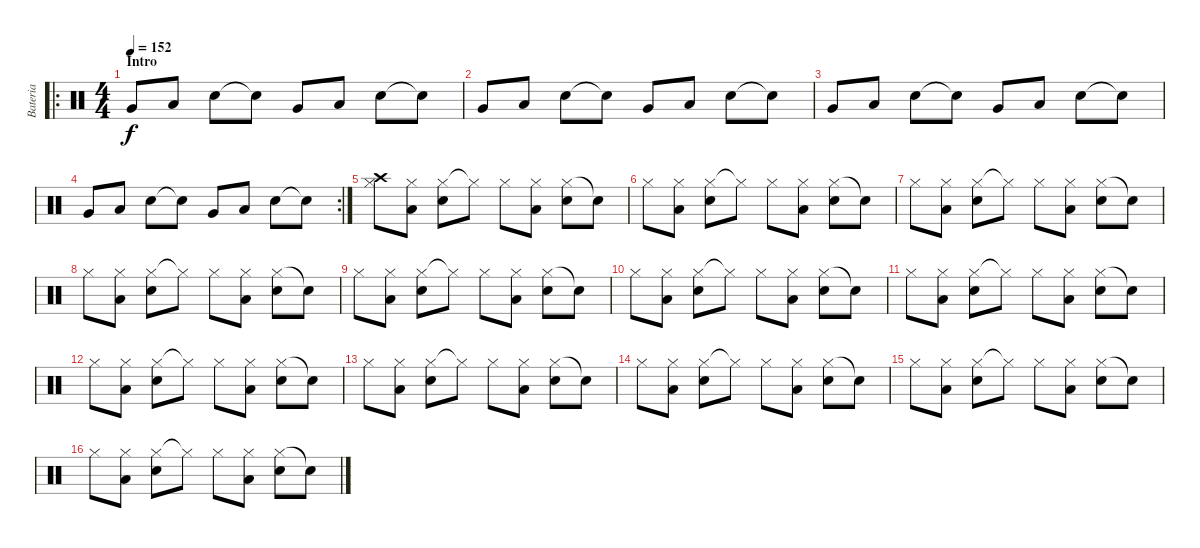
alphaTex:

\track ("Bateria" "Bateria") {instrument percussion}
\staff {score}
\articulation defaults
\ro
\ts (4 4)
\section ("" "Intro")
\tempo 152
\clef neutral
\ks c "Very Low Tom (hit)".8{dy f} "Low Floor Tom (hit)".8 "Snare (hit) 2".8 "Snare (hit)"{t}.8 "Very Low Tom (hit)".8 "Low Floor Tom (hit)".8 "Snare (hit) 2".8 "Snare (hit)"{t}.8
|
"Very Low Tom (hit)".8 "Low Floor Tom (hit)".8 "Snare (hit) 2".8 "Snare (hit)"{t}.8 "Very Low Tom (hit)".8 "Low Floor Tom (hit)".8 "Snare (hit) 2".8 "Snare (hit)"{t}.8 |
"Very Low Tom (hit)".8 "Low Floor Tom (hit)".8 "Snare (hit) 2".8 "Snare (hit)"{t}.8 "Very Low Tom (hit)".8 "Low Floor Tom (hit)".8 "Snare (hit) 2".8 "Snare (hit)"{t}.8 |
\rc 2 "Very Low Tom (hit)".8 "Low Floor Tom (hit)".8 "Snare (hit) 2".8 "Snare (hit)"{t}.8 "Very Low Tom (hit)".8 "Low Floor Tom (hit)".8 "Snare (hit) 2".8 "Snare (hit)"{t}.8
|
("Hi-Hat (closed)" "Crash high (hit)").8 ("Low Floor Tom (hit)" "Hi-Hat (closed)").8 ("Hi-Hat (closed)" "Snare (hit) 2").8 "Hi-Hat (closed)"{t}.8 "Hi-Hat (closed)".8 ("Low Floor Tom (hit)" "Hi-Hat (closed)").8 ("Hi-Hat (closed)" "Snare (hit) 2").8 "Snare (hit)"{t}.8 |
"Hi-Hat (closed)".8 ("Low Floor Tom (hit)" "Hi-Hat (closed)").8 ("Hi-Hat (closed)" "Snare (hit) 2").8 "Hi-Hat (closed)"{t}.8 "Hi-Hat (closed)".8 ("Low Floor Tom (hit)" "Hi-Hat (closed)").8 ("Hi-Hat (closed)" "Snare (hit) 2").8 "Snare (hit)"{t}.8 |
"Hi-Hat (closed)".8 ("Low Floor Tom (hit)" "Hi-Hat (closed)").8 ("Hi-Hat (closed)" "Snare (hit) 2").8 "Hi-Hat (closed)"{t}.8 "Hi-Hat (closed)".8 ("Low Floor Tom (hit)" "Hi-Hat (closed)").8 ("Hi-Hat (closed)" "Snare (hit) 2").8 "Snare (hit)"{t}.8 |
"Hi-Hat (closed)".8 ("Low Floor Tom (hit)" "Hi-Hat (closed)").8 ("Hi-Hat (closed)" "Snare (hit) 2").8 "Hi-Hat (closed)"{t}.8 "Hi-Hat (closed)".8 ("Low Floor Tom (hit)" "Hi-Hat (closed)").8 ("Hi-Hat (closed)" "Snare (hit) 2").8 "Snare (hit)"{t}.8 |
"Hi-Hat (closed)".8 ("Low Floor Tom (hit)" "Hi-Hat (closed)").8 ("Hi-Hat (closed)" "Snare (hit) 2").8 "Hi-Hat (closed)"{t}.8 "Hi-Hat (closed)".8 ("Low Floor Tom (hit)" "Hi-Hat (closed)").8 ("Hi-Hat (closed)" "Snare (hit) 2").8 "Snare (hit)"{t}.8 |
"Hi-Hat (closed)".8 ("Low Floor Tom (hit)" "Hi-Hat (closed)").8 ("Hi-Hat (closed)" "Snare (hit) 2").8 "Hi-Hat (closed)"{t}.8 "Hi-Hat (closed)".8 ("Low Floor Tom (hit)" "Hi-Hat (closed)").8 ("Hi-Hat (closed)" "Snare (hit) 2").8 "Snare (hit)"{t}.8 |
"Hi-Hat (closed)".8 ("Low Floor Tom (hit)" "Hi-Hat (closed)").8 ("Hi-Hat (closed)" "Snare (hit) 2").8 "Hi-Hat (closed)"{t}.8 "Hi-Hat (closed)".8 ("Low Floor Tom (hit)" "Hi-Hat (closed)").8 ("Hi-Hat (closed)" "Snare (hit) 2").8 "Snare (hit)"{t}.8 |
"Hi-Hat (closed)".8 ("Low Floor Tom (hit)" "Hi-Hat (closed)").8 ("Hi-Hat (closed)" "Snare (hit) 2").8 "Hi-Hat (closed)"{t}.8 "Hi-Hat (closed)".8 ("Low Floor Tom (hit)" "Hi-Hat (closed)").8 ("Hi-Hat (closed)" "Snare (hit) 2").8 "Snare (hit)"{t}.8 |
"Hi-Hat (closed)".8 ("Low Floor Tom (hit)" "Hi-Hat (closed)").8 ("Hi-Hat (closed)" "Snare (hit) 2").8 "Hi-Hat (closed)"{t}.8 "Hi-Hat (closed)".8 ("Low Floor Tom (hit)" "Hi-Hat (closed)").8 ("Hi-Hat (closed)" "Snare (hit) 2").8 "Snare (hit)"{t}.8 |
"Hi-Hat (closed)".8 ("Low Floor Tom (hit)" "Hi-Hat (closed)").8 ("Hi-Hat (closed)" "Snare (hit) 2").8 "Hi-Hat (closed)"{t}.8 "Hi-Hat (closed)".8 ("Low Floor Tom (hit)" "Hi-Hat (closed)").8 ("Hi-Hat (closed)" "Snare (hit) 2").8 "Snare (hit)"{t}.8 |
"Hi-Hat (closed)".8 ("Low Floor Tom (hit)" "Hi-Hat (closed)").8 ("Hi-Hat (closed)" "Snare (hit) 2").8 "Hi-Hat (closed)"{t}.8 "Hi-Hat (closed)".8 ("Low Floor Tom (hit)" "Hi-Hat (closed)").8 ("Hi-Hat (closed)" "Snare (hit) 2").8 "Snare (hit)"{t}.8 |
"Hi-Hat (closed)".8 ("Low Floor Tom (hit)" "Hi-Hat (closed)").8 ("Hi-Hat (closed)" "Snare (hit) 2").8 "Hi-Hat (closed)"{t}.8 "Hi-Hat (closed)".8 ("Low Floor Tom (hit)" "Hi-Hat (closed)").8 ("Hi-Hat (closed)" "Snare (hit) 2").8 "Snare (hit)"{t}.8
